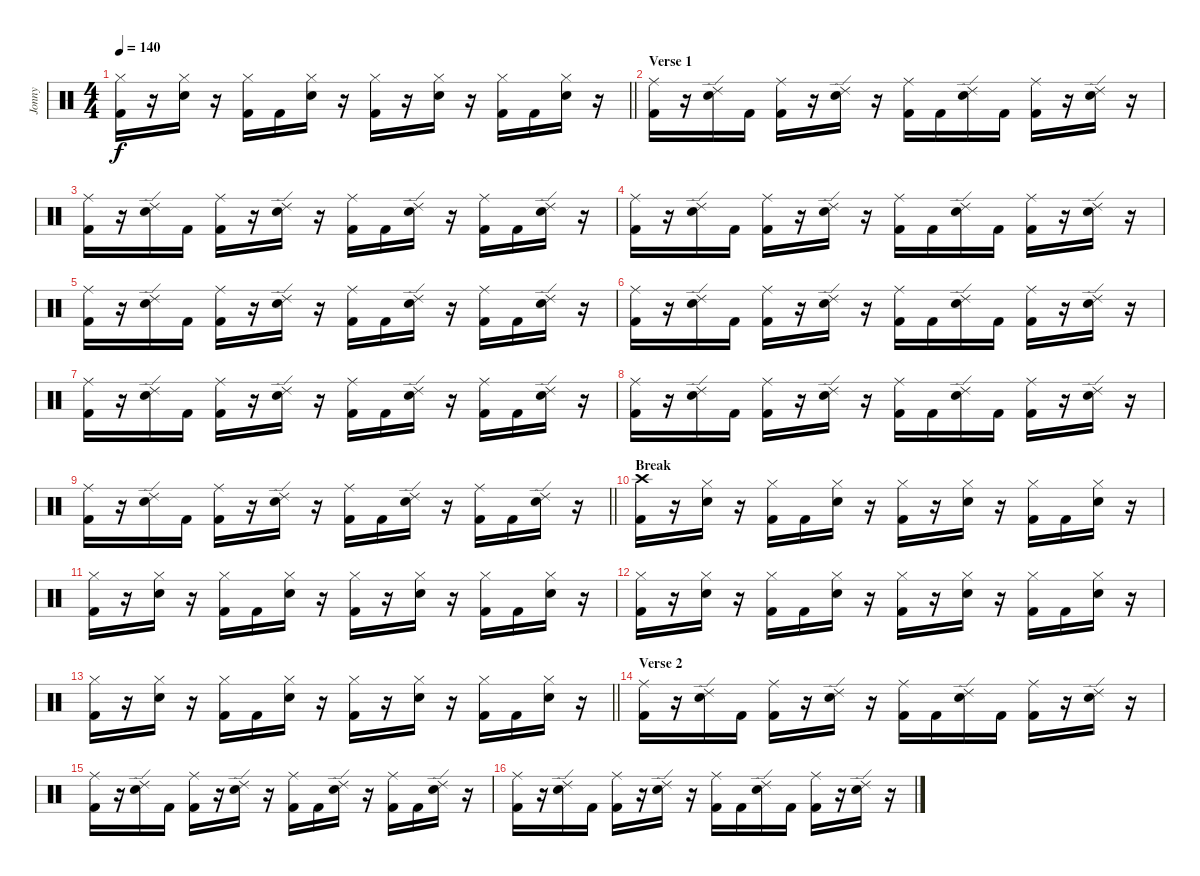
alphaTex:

\track ("Jonny" "Jonny") {instrument percussion}
\staff {score}
\articulation defaults
\ts (4 4)
\tempo 140
\clef neutral
\barLineRight lightlight
\ks c
("Hi-Hat (closed)" "Kick (hit) 2").16{dy f} r.16 ("Hi-Hat (closed)" "Electric Snare (hit)").16 r.16 ("Hi-Hat (closed)" "Kick (hit) 2").16 "Kick (hit) 2".16 ("Hi-Hat (closed)" "Electric Snare (hit)").16 r.16 ("Hi-Hat (closed)" "Kick (hit) 2").16 r.16 ("Hi-Hat (closed)" "Electric Snare (hit)").16 r.16 ("Hi-Hat (closed)" "Kick (hit) 2").16 "Kick (hit) 2".16 ("Hi-Hat (closed)" "Electric Snare (hit)").16 r.16 |
\section ("" "Verse 1")
("Ride (middle)" "Kick (hit) 2").16 r.16 ("Ride (edge) 2" "Electric Snare (hit)").16 "Kick (hit) 2".16 ("Ride (middle)" "Kick (hit) 2").16 r.16 ("Ride (edge) 2" "Electric Snare (hit)").16 r.16 ("Ride (middle)" "Kick (hit) 2").16 "Kick (hit) 2".16 ("Ride (edge) 2" "Electric Snare (hit)").16 "Kick (hit) 2".16 ("Ride (middle)" "Kick (hit) 2").16 r.16 ("Ride (edge) 2" "Electric Snare (hit)").16 r.16 |
("Ride (middle)" "Kick (hit) 2").16 r.16 ("Ride (edge) 2" "Electric Snare (hit)").16 "Kick (hit) 2".16 ("Ride (middle)" "Kick (hit) 2").16 r.16 ("Ride (edge) 2" "Electric Snare (hit)").16 r.16 ("Ride (middle)" "Kick (hit) 2").16 "Kick (hit) 2".16 ("Ride (edge) 2" "Electric Snare (hit)").16 r.16 ("Ride (middle)" "Kick (hit) 2").16 "Kick (hit) 2".16 ("Ride (edge) 2" "Electric Snare (hit)").16 r.16 |
("Ride (middle)" "Kick (hit) 2").16 r.16 ("Ride (edge) 2" "Electric Snare (hit)").16 "Kick (hit) 2".16 ("Ride (middle)" "Kick (hit) 2").16 r.16 ("Ride (edge) 2" "Electric Snare (hit)").16 r.16 ("Ride (middle)" "Kick (hit) 2").16 "Kick (hit) 2".16 ("Ride (edge) 2" "Electric Snare (hit)").16 "Kick (hit) 2".16 ("Ride (middle)" "Kick (hit) 2").16 r.16 ("Ride (edge) 2" "Electric Snare (hit)").16 r.16 |
("Ride (middle)" "Kick (hit) 2").16 r.16 ("Ride (edge) 2" "Electric Snare (hit)").16 "Kick (hit) 2".16 ("Ride (middle)" "Kick (hit) 2").16 r.16 ("Ride (edge) 2" "Electric Snare (hit)").16 r.16 ("Ride (middle)" "Kick (hit) 2").16 "Kick (hit) 2".16 ("Ride (edge) 2" "Electric Snare (hit)").16 r.16 ("Ride (middle)" "Kick (hit) 2").16 "Kick (hit) 2".16 ("Ride (edge) 2" "Electric Snare (hit)").16 r.16 |
("Ride (middle)" "Kick (hit) 2").16 r.16 ("Ride (edge) 2" "Electric Snare (hit)").16 "Kick (hit) 2".16 ("Ride (middle)" "Kick (hit) 2").16 r.16 ("Ride (edge) 2" "Electric Snare (hit)").16 r.16 ("Ride (middle)" "Kick (hit) 2").16 "Kick (hit) 2".16 ("Ride (edge) 2" "Electric Snare (hit)").16 "Kick (hit) 2".16 ("Ride (middle)" "Kick (hit) 2").16 r.16 ("Ride (edge) 2" "Electric Snare (hit)").16 r.16 |
("Ride (middle)" "Kick (hit) 2").16 r.16 ("Ride (edge) 2" "Electric Snare (hit)").16 "Kick (hit) 2".16 ("Ride (middle)" "Kick (hit) 2").16 r.16 ("Ride (edge) 2" "Electric Snare (hit)").16 r.16 ("Ride (middle)" "Kick (hit) 2").16 "Kick (hit) 2".16 ("Ride (edge) 2" "Electric Snare (hit)").16 r.16 ("Ride (middle)" "Kick (hit) 2").16 "Kick (hit) 2".16 ("Ride (edge) 2" "Electric Snare (hit)").16 r.16 |
("Ride (middle)" "Kick (hit) 2").16 r.16 ("Ride (edge) 2" "Electric Snare (hit)").16 "Kick (hit) 2".16 ("Ride (middle)" "Kick (hit) 2").16 r.16 ("Ride (edge) 2" "Electric Snare (hit)").16 r.16 ("Ride (middle)" "Kick (hit) 2").16 "Kick (hit) 2".16 ("Ride (edge) 2" "Electric Snare (hit)").16 "Kick (hit) 2".16 ("Ride (middle)" "Kick (hit) 2").16 r.16 ("Ride (edge) 2" "Electric Snare (hit)").16 r.16 |
\barLineRight lightlight
("Ride (middle)" "Kick (hit) 2").16 r.16 ("Ride (edge) 2" "Electric Snare (hit)").16 "Kick (hit) 2".16 ("Ride (middle)" "Kick (hit) 2").16 r.16 ("Ride (edge) 2" "Electric Snare (hit)").16 r.16 ("Ride (middle)" "Kick (hit) 2").16 "Kick (hit) 2".16 ("Ride (edge) 2" "Electric Snare (hit)").16 r.16 ("Ride (middle)" "Kick (hit) 2").16 "Kick (hit) 2".16 ("Ride (edge) 2" "Electric Snare (hit)").16 r.16 |
\section ("" "Break")
("Crash high (hit)" "Kick (hit) 2").16 r.16 ("Hi-Hat (closed)" "Electric Snare (hit)").16 r.16 ("Hi-Hat (closed)" "Kick (hit) 2").16 "Kick (hit) 2".16 ("Hi-Hat (closed)" "Electric Snare (hit)").16 r.16 ("Hi-Hat (closed)" "Kick (hit) 2").16 r.16 ("Hi-Hat (closed)" "Electric Snare (hit)").16 r.16 ("Hi-Hat (closed)" "Kick (hit) 2").16 "Kick (hit) 2".16 ("Hi-Hat (closed)" "Electric Snare (hit)").16 r.16 |
("Hi-Hat (closed)" "Kick (hit) 2").16 r.16 ("Hi-Hat (closed)" "Electric Snare (hit)").16 r.16 ("Hi-Hat (closed)" "Kick (hit) 2").16 "Kick (hit) 2".16 ("Hi-Hat (closed)" "Electric Snare (hit)").16 r.16 ("Hi-Hat (closed)" "Kick (hit) 2").16 r.16 ("Hi-Hat (closed)" "Electric Snare (hit)").16 r.16 ("Hi-Hat (closed)" "Kick (hit) 2").16 "Kick (hit) 2".16 ("Hi-Hat (closed)" "Electric Snare (hit)").16 r.16 |
("Hi-Hat (closed)" "Kick (hit) 2").16 r.16 ("Hi-Hat (closed)" "Electric Snare (hit)").16 r.16 ("Hi-Hat (closed)" "Kick (hit) 2").16 "Kick (hit) 2".16 ("Hi-Hat (closed)" "Electric Snare (hit)").16 r.16 ("Hi-Hat (closed)" "Kick (hit) 2").16 r.16 ("Hi-Hat (closed)" "Electric Snare (hit)").16 r.16 ("Hi-Hat (closed)" "Kick (hit) 2").16 "Kick (hit) 2".16 ("Hi-Hat (closed)" "Electric Snare (hit)").16 r.16 |
\barLineRight lightlight
("Hi-Hat (closed)" "Kick (hit) 2").16 r.16 ("Hi-Hat (closed)" "Electric Snare (hit)").16 r.16 ("Hi-Hat (closed)" "Kick (hit) 2").16 "Kick (hit) 2".16 ("Hi-Hat (closed)" "Electric Snare (hit)").16 r.16 ("Hi-Hat (closed)" "Kick (hit) 2").16 r.16 ("Hi-Hat (closed)" "Electric Snare (hit)").16 r.16 ("Hi-Hat (closed)" "Kick (hit) 2").16 "Kick (hit) 2".16 ("Hi-Hat (closed)" "Electric Snare (hit)").16 r.16 |
\section ("" "Verse 2")
("Ride (middle)" "Kick (hit) 2").16 r.16 ("Ride (edge) 2" "Electric Snare (hit)").16 "Kick (hit) 2".16 ("Ride (middle)" "Kick (hit) 2").16 r.16 ("Ride (edge) 2" "Electric Snare (hit)").16 r.16 ("Ride (middle)" "Kick (hit) 2").16 "Kick (hit) 2".16 ("Ride (edge) 2" "Electric Snare (hit)").16 "Kick (hit) 2".16 ("Ride (middle)" "Kick (hit) 2").16 r.16 ("Ride (edge) 2" "Electric Snare (hit)").16 r.16 |
("Ride (middle)" "Kick (hit) 2").16 r.16 ("Ride (edge) 2" "Electric Snare (hit)").16 "Kick (hit) 2".16 ("Ride (middle)" "Kick (hit) 2").16 r.16 ("Ride (edge) 2" "Electric Snare (hit)").16 r.16 ("Ride (middle)" "Kick (hit) 2").16 "Kick (hit) 2".16 ("Ride (edge) 2" "Electric Snare (hit)").16 r.16 ("Ride (middle)" "Kick (hit) 2").16 "Kick (hit) 2".16 ("Ride (edge) 2" "Electric Snare (hit)").16 r.16 |
("Ride (middle)" "Kick (hit) 2").16 r.16 ("Ride (edge) 2" "Electric Snare (hit)").16 "Kick (hit) 2".16 ("Ride (middle)" "Kick (hit) 2").16 r.16 ("Ride (edge) 2" "Electric Snare (hit)").16 r.16 ("Ride (middle)" "Kick (hit) 2").16 "Kick (hit) 2".16 ("Ride (edge) 2" "Electric Snare (hit)").16 "Kick (hit) 2".16 ("Ride (middle)" "Kick (hit) 2").16 r.16 ("Ride (edge) 2" "Electric Snare (hit)").16 r.16
